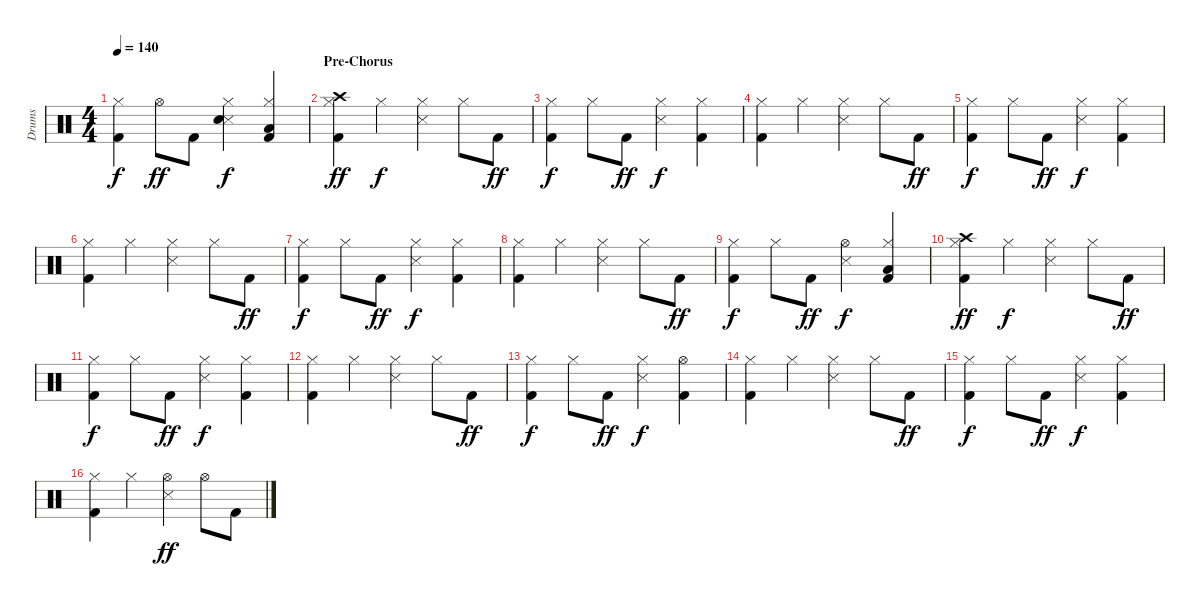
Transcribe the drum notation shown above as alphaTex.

\track ("Drums" "Drums") {instrument percussion}
\staff {score}
\articulation defaults
\ts (4 4)
\tempo 140
\clef neutral
\ks c
("Kick (hit) 2" "Hi-Hat (closed)").4{dy f} "Hi-Hat (open)".8{dy ff} "Kick (hit) 2".8 ("Snare (side stick) 3" "Snare (hit) 2" "Hi-Hat (closed)").4{dy f} ("Kick (hit) 2" "Hi-Hat (closed)" "Low Tom (hit)").4 |
\section ("" "Pre-Chorus")
("Kick (hit) 2" "Hi-Hat (closed)" "Crash high (hit)").4{dy ff} "Hi-Hat (closed)".4{dy f} ("Snare (side stick) 3" "Hi-Hat (closed)").4 "Hi-Hat (closed)".8 "Kick (hit) 2".8{dy ff} |
("Kick (hit) 2" "Hi-Hat (closed)").4{dy f} "Hi-Hat (closed)".8 "Kick (hit) 2".8{dy ff} ("Snare (side stick) 3" "Hi-Hat (closed)").4{dy f} ("Kick (hit) 2" "Hi-Hat (closed)").4 |
("Kick (hit) 2" "Hi-Hat (closed)").4 "Hi-Hat (closed)".4 ("Snare (side stick) 3" "Hi-Hat (closed)").4 "Hi-Hat (closed)".8 "Kick (hit) 2".8{dy ff} |
("Kick (hit) 2" "Hi-Hat (closed)").4{dy f} "Hi-Hat (closed)".8 "Kick (hit) 2".8{dy ff} ("Snare (side stick) 3" "Hi-Hat (closed)").4{dy f} ("Kick (hit) 2" "Hi-Hat (closed)").4 |
("Kick (hit) 2" "Hi-Hat (closed)").4 "Hi-Hat (closed)".4 ("Snare (side stick) 3" "Hi-Hat (closed)").4 "Hi-Hat (closed)".8 "Kick (hit) 2".8{dy ff} |
("Kick (hit) 2" "Hi-Hat (closed)").4{dy f} "Hi-Hat (closed)".8 "Kick (hit) 2".8{dy ff} ("Snare (side stick) 3" "Hi-Hat (closed)").4{dy f} ("Kick (hit) 2" "Hi-Hat (closed)").4 |
("Kick (hit) 2" "Hi-Hat (closed)").4 "Hi-Hat (closed)".4 ("Snare (side stick) 3" "Hi-Hat (closed)").4 "Hi-Hat (closed)".8 "Kick (hit) 2".8{dy ff} |
("Kick (hit) 2" "Hi-Hat (closed)").4{dy f} "Hi-Hat (closed)".8 "Kick (hit) 2".8{dy ff} ("Snare (side stick) 3" "Hi-Hat (open)").4{dy f} ("Kick (hit) 2" "Hi-Hat (closed)" "Low Tom (hit)").4 |
("Kick (hit) 2" "Hi-Hat (closed)" "Crash high (hit)").4{dy ff} "Hi-Hat (closed)".4{dy f} ("Snare (side stick) 3" "Hi-Hat (closed)").4 "Hi-Hat (closed)".8 "Kick (hit) 2".8{dy ff} |
("Kick (hit) 2" "Hi-Hat (closed)").4{dy f} "Hi-Hat (closed)".8 "Kick (hit) 2".8{dy ff} ("Snare (side stick) 3" "Hi-Hat (closed)").4{dy f} ("Kick (hit) 2" "Hi-Hat (closed)").4 |
("Kick (hit) 2" "Hi-Hat (closed)").4 "Hi-Hat (closed)".4 ("Snare (side stick) 3" "Hi-Hat (closed)").4 "Hi-Hat (closed)".8 "Kick (hit) 2".8{dy ff} |
("Kick (hit) 2" "Hi-Hat (closed)").4{dy f} "Hi-Hat (closed)".8 "Kick (hit) 2".8{dy ff} ("Snare (side stick) 3" "Hi-Hat (closed)").4{dy f} ("Kick (hit) 2" "Hi-Hat (open)").4 |
("Kick (hit) 2" "Hi-Hat (closed)").4 "Hi-Hat (closed)".4 ("Snare (side stick) 3" "Hi-Hat (closed)").4 "Hi-Hat (closed)".8 "Kick (hit) 2".8{dy ff} |
("Kick (hit) 2" "Hi-Hat (closed)").4{dy f} "Hi-Hat (closed)".8 "Kick (hit) 2".8{dy ff} ("Snare (side stick) 3" "Hi-Hat (closed)").4{dy f} ("Kick (hit) 2" "Hi-Hat (closed)").4 |
("Kick (hit) 2" "Hi-Hat (closed)").4 "Hi-Hat (closed)".4 ("Snare (side stick) 3" "Hi-Hat (open)").4{dy ff} "Hi-Hat (open)".8 "Kick (hit) 2".8
